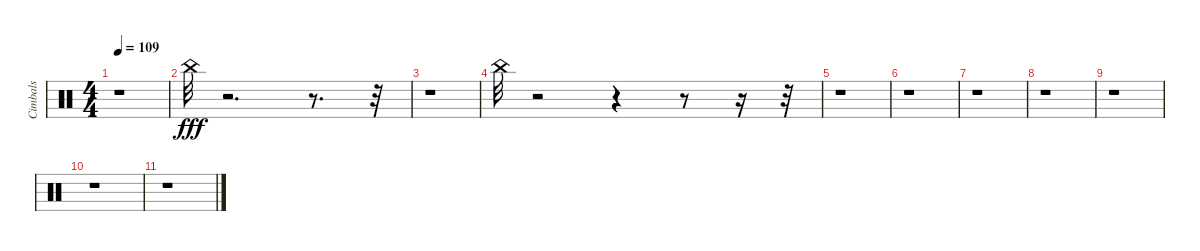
\track ("Cimbals" "Cimbals") {instrument percussion}
\staff {score}
\articulation defaults
\ts (4 4)
\tempo 109
\clef neutral
\ks c
r.1{dy fff} |
"China (choke)".32 r.2{d} r.8{d} r.32 |
r.1 |
"China (choke)".32 r.2 r.4 r.8 r.16 r.32 |
r.1 |
r.1 |
r.1 |
r.1 |
r.1 |
r.1 |
r.1
